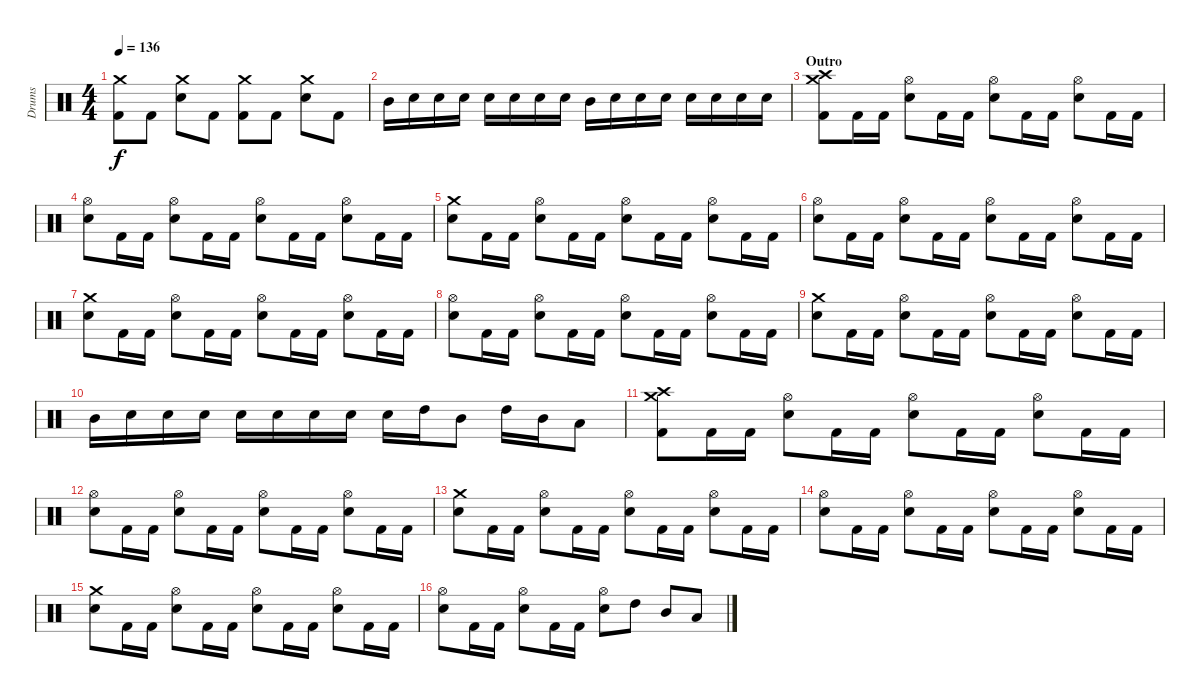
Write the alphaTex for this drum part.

\track ("Drums" "Drums") {instrument percussion}
\staff {score}
\articulation defaults
\ts (4 4)
\tempo 136
\clef neutral
\ks c
("Crash medium (hit)" "Kick (hit) 2").8{dy f} "Kick (hit) 2".8 ("Crash medium (hit)" "Electric Snare (hit)").8 "Kick (hit) 2".8 ("Crash medium (hit)" "Kick (hit) 2").8 "Kick (hit) 2".8 ("Crash medium (hit)" "Electric Snare (hit)").8 "Kick (hit) 2".8 |
"Mid Tom (hit)".16 "Electric Snare (hit)".16 "Electric Snare (hit)".16 "Electric Snare (hit)".16 "Electric Snare (hit)".16 "Electric Snare (hit)".16 "Electric Snare (hit)".16 "Electric Snare (hit)".16 "Mid Tom (hit)".16 "Electric Snare (hit)".16 "Electric Snare (hit)".16 "Electric Snare (hit)".16 "Electric Snare (hit)".16 "Electric Snare (hit)".16 "Electric Snare (hit)".16 "Electric Snare (hit)".16 |
\section ("" "Outro")
("Crash medium (hit)" "Crash high (hit)" "Kick (hit) 2").8 "Kick (hit) 2".16 "Kick (hit) 2".16 ("Hi-Hat (open)" "Electric Snare (hit)").8 "Kick (hit) 2".16 "Kick (hit) 2".16 ("Hi-Hat (open)" "Electric Snare (hit)").8 "Kick (hit) 2".16 "Kick (hit) 2".16 ("Hi-Hat (open)" "Electric Snare (hit)").8 "Kick (hit) 2".16 "Kick (hit) 2".16 |
("Hi-Hat (open)" "Electric Snare (hit)").8 "Kick (hit) 2".16 "Kick (hit) 2".16 ("Hi-Hat (open)" "Electric Snare (hit)").8 "Kick (hit) 2".16 "Kick (hit) 2".16 ("Hi-Hat (open)" "Electric Snare (hit)").8 "Kick (hit) 2".16 "Kick (hit) 2".16 ("Hi-Hat (open)" "Electric Snare (hit)").8 "Kick (hit) 2".16 "Kick (hit) 2".16 |
("Crash medium (hit)" "Electric Snare (hit)").8 "Kick (hit) 2".16 "Kick (hit) 2".16 ("Hi-Hat (open)" "Electric Snare (hit)").8 "Kick (hit) 2".16 "Kick (hit) 2".16 ("Hi-Hat (open)" "Electric Snare (hit)").8 "Kick (hit) 2".16 "Kick (hit) 2".16 ("Hi-Hat (open)" "Electric Snare (hit)").8 "Kick (hit) 2".16 "Kick (hit) 2".16 |
("Hi-Hat (open)" "Electric Snare (hit)").8 "Kick (hit) 2".16 "Kick (hit) 2".16 ("Hi-Hat (open)" "Electric Snare (hit)").8 "Kick (hit) 2".16 "Kick (hit) 2".16 ("Hi-Hat (open)" "Electric Snare (hit)").8 "Kick (hit) 2".16 "Kick (hit) 2".16 ("Hi-Hat (open)" "Electric Snare (hit)").8 "Kick (hit) 2".16 "Kick (hit) 2".16 |
("Crash medium (hit)" "Electric Snare (hit)").8 "Kick (hit) 2".16 "Kick (hit) 2".16 ("Hi-Hat (open)" "Electric Snare (hit)").8 "Kick (hit) 2".16 "Kick (hit) 2".16 ("Hi-Hat (open)" "Electric Snare (hit)").8 "Kick (hit) 2".16 "Kick (hit) 2".16 ("Hi-Hat (open)" "Electric Snare (hit)").8 "Kick (hit) 2".16 "Kick (hit) 2".16 |
("Hi-Hat (open)" "Electric Snare (hit)").8 "Kick (hit) 2".16 "Kick (hit) 2".16 ("Hi-Hat (open)" "Electric Snare (hit)").8 "Kick (hit) 2".16 "Kick (hit) 2".16 ("Hi-Hat (open)" "Electric Snare (hit)").8 "Kick (hit) 2".16 "Kick (hit) 2".16 ("Hi-Hat (open)" "Electric Snare (hit)").8 "Kick (hit) 2".16 "Kick (hit) 2".16 |
("Crash medium (hit)" "Electric Snare (hit)").8 "Kick (hit) 2".16 "Kick (hit) 2".16 ("Hi-Hat (open)" "Electric Snare (hit)").8 "Kick (hit) 2".16 "Kick (hit) 2".16 ("Hi-Hat (open)" "Electric Snare (hit)").8 "Kick (hit) 2".16 "Kick (hit) 2".16 ("Hi-Hat (open)" "Electric Snare (hit)").8 "Kick (hit) 2".16 "Kick (hit) 2".16 |
"Mid Tom (hit)".16 "Electric Snare (hit)".16 "Electric Snare (hit)".16 "Electric Snare (hit)".16 "Electric Snare (hit)".16 "Electric Snare (hit)".16 "Electric Snare (hit)".16 "Electric Snare (hit)".16 "Electric Snare (hit)".16 "High Tom (hit)".16 "Mid Tom (hit)".8 "High Tom (hit)".16 "Mid Tom (hit)".16 "Low Tom (hit)".8 |
("Crash medium (hit)" "Crash high (hit)" "Kick (hit) 2").8 "Kick (hit) 2".16 "Kick (hit) 2".16 ("Hi-Hat (open)" "Electric Snare (hit)").8 "Kick (hit) 2".16 "Kick (hit) 2".16 ("Hi-Hat (open)" "Electric Snare (hit)").8 "Kick (hit) 2".16 "Kick (hit) 2".16 ("Hi-Hat (open)" "Electric Snare (hit)").8 "Kick (hit) 2".16 "Kick (hit) 2".16 |
("Hi-Hat (open)" "Electric Snare (hit)").8 "Kick (hit) 2".16 "Kick (hit) 2".16 ("Hi-Hat (open)" "Electric Snare (hit)").8 "Kick (hit) 2".16 "Kick (hit) 2".16 ("Hi-Hat (open)" "Electric Snare (hit)").8 "Kick (hit) 2".16 "Kick (hit) 2".16 ("Hi-Hat (open)" "Electric Snare (hit)").8 "Kick (hit) 2".16 "Kick (hit) 2".16 |
("Crash medium (hit)" "Electric Snare (hit)").8 "Kick (hit) 2".16 "Kick (hit) 2".16 ("Hi-Hat (open)" "Electric Snare (hit)").8 "Kick (hit) 2".16 "Kick (hit) 2".16 ("Hi-Hat (open)" "Electric Snare (hit)").8 "Kick (hit) 2".16 "Kick (hit) 2".16 ("Hi-Hat (open)" "Electric Snare (hit)").8 "Kick (hit) 2".16 "Kick (hit) 2".16 |
("Hi-Hat (open)" "Electric Snare (hit)").8 "Kick (hit) 2".16 "Kick (hit) 2".16 ("Hi-Hat (open)" "Electric Snare (hit)").8 "Kick (hit) 2".16 "Kick (hit) 2".16 ("Hi-Hat (open)" "Electric Snare (hit)").8 "Kick (hit) 2".16 "Kick (hit) 2".16 ("Hi-Hat (open)" "Electric Snare (hit)").8 "Kick (hit) 2".16 "Kick (hit) 2".16 |
("Crash medium (hit)" "Electric Snare (hit)").8 "Kick (hit) 2".16 "Kick (hit) 2".16 ("Hi-Hat (open)" "Electric Snare (hit)").8 "Kick (hit) 2".16 "Kick (hit) 2".16 ("Hi-Hat (open)" "Electric Snare (hit)").8 "Kick (hit) 2".16 "Kick (hit) 2".16 ("Hi-Hat (open)" "Electric Snare (hit)").8 "Kick (hit) 2".16 "Kick (hit) 2".16 |
("Hi-Hat (open)" "Electric Snare (hit)").8 "Kick (hit) 2".16 "Kick (hit) 2".16 ("Hi-Hat (open)" "Electric Snare (hit)").8 "Kick (hit) 2".16 "Kick (hit) 2".16 ("Hi-Hat (open)" "Electric Snare (hit)").8 "High Tom (hit)".8 "Mid Tom (hit)".8 "Low Tom (hit)".8
